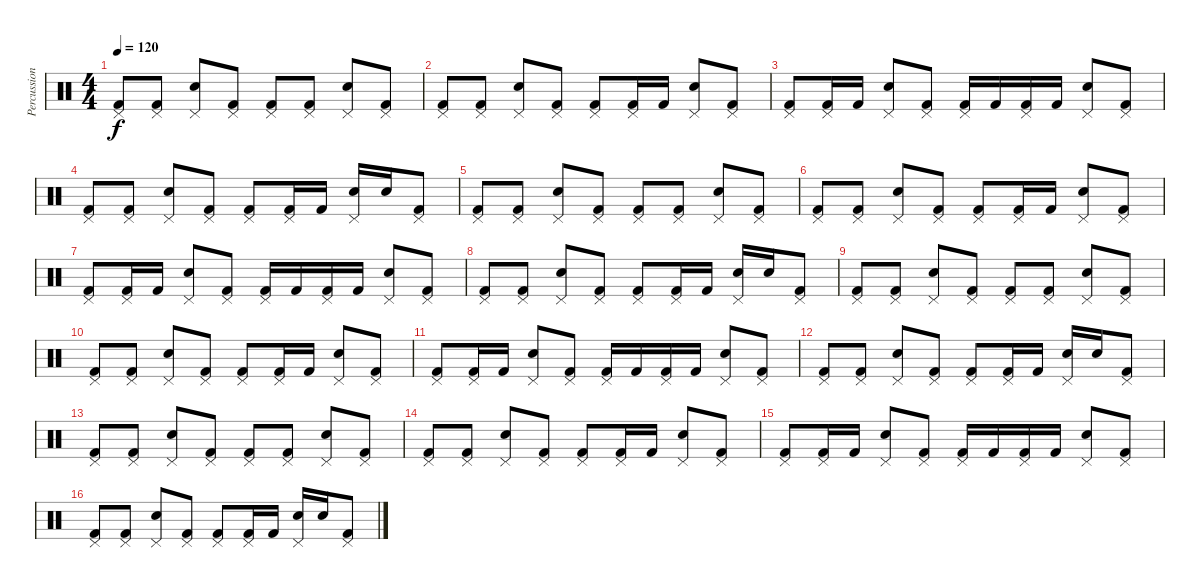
\track ("Percussion" "Percussion") {instrument percussion}
\staff {score}
\articulation defaults
\ts (4 4)
\tempo 120
\clef neutral
\ks c
("Kick (hit) 2" "Pedal Hi-Hat (hit)").8{dy f} ("Kick (hit) 2" "Pedal Hi-Hat (hit)").8 ("Electric Snare (hit)" "Pedal Hi-Hat (hit)").8 ("Kick (hit) 2" "Pedal Hi-Hat (hit)").8 ("Kick (hit) 2" "Pedal Hi-Hat (hit)").8 ("Kick (hit) 2" "Pedal Hi-Hat (hit)").8 ("Electric Snare (hit)" "Pedal Hi-Hat (hit)").8 ("Kick (hit) 2" "Pedal Hi-Hat (hit)").8 |
("Kick (hit) 2" "Pedal Hi-Hat (hit)").8 ("Kick (hit) 2" "Pedal Hi-Hat (hit)").8 ("Electric Snare (hit)" "Pedal Hi-Hat (hit)").8 ("Kick (hit) 2" "Pedal Hi-Hat (hit)").8 ("Kick (hit) 2" "Pedal Hi-Hat (hit)").8 ("Kick (hit) 2" "Pedal Hi-Hat (hit)").16 "Kick (hit) 2".16 ("Electric Snare (hit)" "Pedal Hi-Hat (hit)").8 ("Kick (hit) 2" "Pedal Hi-Hat (hit)").8 |
("Kick (hit) 2" "Pedal Hi-Hat (hit)").8 ("Kick (hit) 2" "Pedal Hi-Hat (hit)").16 "Kick (hit) 2".16 ("Electric Snare (hit)" "Pedal Hi-Hat (hit)").8 ("Kick (hit) 2" "Pedal Hi-Hat (hit)").8 ("Kick (hit) 2" "Pedal Hi-Hat (hit)").16 "Kick (hit) 2".16 ("Kick (hit) 2" "Pedal Hi-Hat (hit)").16 "Kick (hit) 2".16 ("Electric Snare (hit)" "Pedal Hi-Hat (hit)").8 ("Kick (hit) 2" "Pedal Hi-Hat (hit)").8 |
("Kick (hit) 2" "Pedal Hi-Hat (hit)").8 ("Kick (hit) 2" "Pedal Hi-Hat (hit)").8 ("Electric Snare (hit)" "Pedal Hi-Hat (hit)").8 ("Kick (hit) 2" "Pedal Hi-Hat (hit)").8 ("Kick (hit) 2" "Pedal Hi-Hat (hit)").8 ("Kick (hit) 2" "Pedal Hi-Hat (hit)").16 "Kick (hit) 2".16 ("Electric Snare (hit)" "Pedal Hi-Hat (hit)").16 "Electric Snare (hit)".16 ("Kick (hit) 2" "Pedal Hi-Hat (hit)").8 |
("Kick (hit) 2" "Pedal Hi-Hat (hit)").8 ("Kick (hit) 2" "Pedal Hi-Hat (hit)").8 ("Electric Snare (hit)" "Pedal Hi-Hat (hit)").8 ("Kick (hit) 2" "Pedal Hi-Hat (hit)").8 ("Kick (hit) 2" "Pedal Hi-Hat (hit)").8 ("Kick (hit) 2" "Pedal Hi-Hat (hit)").8 ("Electric Snare (hit)" "Pedal Hi-Hat (hit)").8 ("Kick (hit) 2" "Pedal Hi-Hat (hit)").8 |
("Kick (hit) 2" "Pedal Hi-Hat (hit)").8 ("Kick (hit) 2" "Pedal Hi-Hat (hit)").8 ("Electric Snare (hit)" "Pedal Hi-Hat (hit)").8 ("Kick (hit) 2" "Pedal Hi-Hat (hit)").8 ("Kick (hit) 2" "Pedal Hi-Hat (hit)").8 ("Kick (hit) 2" "Pedal Hi-Hat (hit)").16 "Kick (hit) 2".16 ("Electric Snare (hit)" "Pedal Hi-Hat (hit)").8 ("Kick (hit) 2" "Pedal Hi-Hat (hit)").8 |
("Kick (hit) 2" "Pedal Hi-Hat (hit)").8 ("Kick (hit) 2" "Pedal Hi-Hat (hit)").16 "Kick (hit) 2".16 ("Electric Snare (hit)" "Pedal Hi-Hat (hit)").8 ("Kick (hit) 2" "Pedal Hi-Hat (hit)").8 ("Kick (hit) 2" "Pedal Hi-Hat (hit)").16 "Kick (hit) 2".16 ("Kick (hit) 2" "Pedal Hi-Hat (hit)").16 "Kick (hit) 2".16 ("Electric Snare (hit)" "Pedal Hi-Hat (hit)").8 ("Kick (hit) 2" "Pedal Hi-Hat (hit)").8 |
("Kick (hit) 2" "Pedal Hi-Hat (hit)").8 ("Kick (hit) 2" "Pedal Hi-Hat (hit)").8 ("Electric Snare (hit)" "Pedal Hi-Hat (hit)").8 ("Kick (hit) 2" "Pedal Hi-Hat (hit)").8 ("Kick (hit) 2" "Pedal Hi-Hat (hit)").8 ("Kick (hit) 2" "Pedal Hi-Hat (hit)").16 "Kick (hit) 2".16 ("Electric Snare (hit)" "Pedal Hi-Hat (hit)").16 "Electric Snare (hit)".16 ("Kick (hit) 2" "Pedal Hi-Hat (hit)").8 |
("Kick (hit) 2" "Pedal Hi-Hat (hit)").8 ("Kick (hit) 2" "Pedal Hi-Hat (hit)").8 ("Electric Snare (hit)" "Pedal Hi-Hat (hit)").8 ("Kick (hit) 2" "Pedal Hi-Hat (hit)").8 ("Kick (hit) 2" "Pedal Hi-Hat (hit)").8 ("Kick (hit) 2" "Pedal Hi-Hat (hit)").8 ("Electric Snare (hit)" "Pedal Hi-Hat (hit)").8 ("Kick (hit) 2" "Pedal Hi-Hat (hit)").8 |
("Kick (hit) 2" "Pedal Hi-Hat (hit)").8 ("Kick (hit) 2" "Pedal Hi-Hat (hit)").8 ("Electric Snare (hit)" "Pedal Hi-Hat (hit)").8 ("Kick (hit) 2" "Pedal Hi-Hat (hit)").8 ("Kick (hit) 2" "Pedal Hi-Hat (hit)").8 ("Kick (hit) 2" "Pedal Hi-Hat (hit)").16 "Kick (hit) 2".16 ("Electric Snare (hit)" "Pedal Hi-Hat (hit)").8 ("Kick (hit) 2" "Pedal Hi-Hat (hit)").8 |
("Kick (hit) 2" "Pedal Hi-Hat (hit)").8 ("Kick (hit) 2" "Pedal Hi-Hat (hit)").16 "Kick (hit) 2".16 ("Electric Snare (hit)" "Pedal Hi-Hat (hit)").8 ("Kick (hit) 2" "Pedal Hi-Hat (hit)").8 ("Kick (hit) 2" "Pedal Hi-Hat (hit)").16 "Kick (hit) 2".16 ("Kick (hit) 2" "Pedal Hi-Hat (hit)").16 "Kick (hit) 2".16 ("Electric Snare (hit)" "Pedal Hi-Hat (hit)").8 ("Kick (hit) 2" "Pedal Hi-Hat (hit)").8 |
("Kick (hit) 2" "Pedal Hi-Hat (hit)").8 ("Kick (hit) 2" "Pedal Hi-Hat (hit)").8 ("Electric Snare (hit)" "Pedal Hi-Hat (hit)").8 ("Kick (hit) 2" "Pedal Hi-Hat (hit)").8 ("Kick (hit) 2" "Pedal Hi-Hat (hit)").8 ("Kick (hit) 2" "Pedal Hi-Hat (hit)").16 "Kick (hit) 2".16 ("Electric Snare (hit)" "Pedal Hi-Hat (hit)").16 "Electric Snare (hit)".16 ("Kick (hit) 2" "Pedal Hi-Hat (hit)").8 |
("Kick (hit) 2" "Pedal Hi-Hat (hit)").8 ("Kick (hit) 2" "Pedal Hi-Hat (hit)").8 ("Electric Snare (hit)" "Pedal Hi-Hat (hit)").8 ("Kick (hit) 2" "Pedal Hi-Hat (hit)").8 ("Kick (hit) 2" "Pedal Hi-Hat (hit)").8 ("Kick (hit) 2" "Pedal Hi-Hat (hit)").8 ("Electric Snare (hit)" "Pedal Hi-Hat (hit)").8 ("Kick (hit) 2" "Pedal Hi-Hat (hit)").8 |
("Kick (hit) 2" "Pedal Hi-Hat (hit)").8 ("Kick (hit) 2" "Pedal Hi-Hat (hit)").8 ("Electric Snare (hit)" "Pedal Hi-Hat (hit)").8 ("Kick (hit) 2" "Pedal Hi-Hat (hit)").8 ("Kick (hit) 2" "Pedal Hi-Hat (hit)").8 ("Kick (hit) 2" "Pedal Hi-Hat (hit)").16 "Kick (hit) 2".16 ("Electric Snare (hit)" "Pedal Hi-Hat (hit)").8 ("Kick (hit) 2" "Pedal Hi-Hat (hit)").8 |
("Kick (hit) 2" "Pedal Hi-Hat (hit)").8 ("Kick (hit) 2" "Pedal Hi-Hat (hit)").16 "Kick (hit) 2".16 ("Electric Snare (hit)" "Pedal Hi-Hat (hit)").8 ("Kick (hit) 2" "Pedal Hi-Hat (hit)").8 ("Kick (hit) 2" "Pedal Hi-Hat (hit)").16 "Kick (hit) 2".16 ("Kick (hit) 2" "Pedal Hi-Hat (hit)").16 "Kick (hit) 2".16 ("Electric Snare (hit)" "Pedal Hi-Hat (hit)").8 ("Kick (hit) 2" "Pedal Hi-Hat (hit)").8 |
("Kick (hit) 2" "Pedal Hi-Hat (hit)").8 ("Kick (hit) 2" "Pedal Hi-Hat (hit)").8 ("Electric Snare (hit)" "Pedal Hi-Hat (hit)").8 ("Kick (hit) 2" "Pedal Hi-Hat (hit)").8 ("Kick (hit) 2" "Pedal Hi-Hat (hit)").8 ("Kick (hit) 2" "Pedal Hi-Hat (hit)").16 "Kick (hit) 2".16 ("Electric Snare (hit)" "Pedal Hi-Hat (hit)").16 "Electric Snare (hit)".16 ("Kick (hit) 2" "Pedal Hi-Hat (hit)").8
